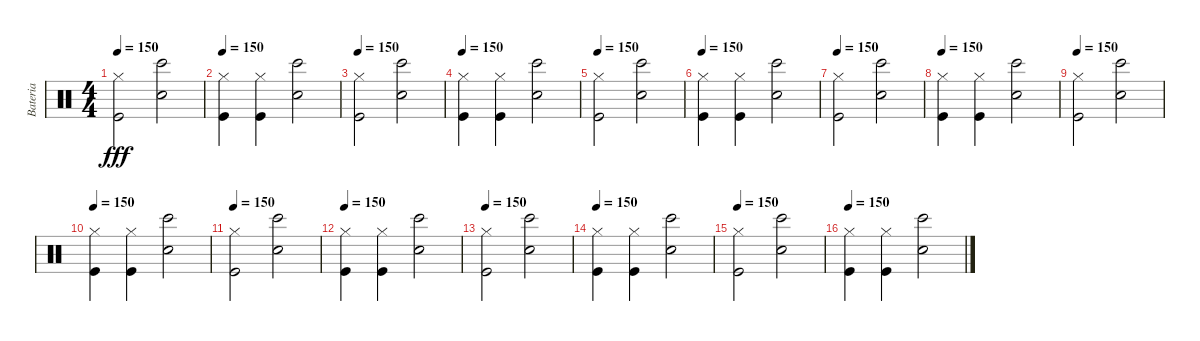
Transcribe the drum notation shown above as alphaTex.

\track ("Bateria" "Bateria") {instrument percussion}
\staff {score}
\articulation defaults
\ts (4 4)
\tempo 150
\clef neutral
\ks c
("Kick (hit)" "Hi-Hat (closed)").2{dy fff} ("Electric Snare (hit)" "Bongo High (hit)").2 |
\tempo 150
("Kick (hit)" "Hi-Hat (closed)").4 ("Kick (hit)" "Hi-Hat (closed)").4 ("Electric Snare (hit)" "Bongo High (hit)").2 |
\tempo 150
("Kick (hit)" "Hi-Hat (closed)").2 ("Electric Snare (hit)" "Bongo High (hit)").2 |
\tempo 150
("Kick (hit)" "Hi-Hat (closed)").4 ("Kick (hit)" "Hi-Hat (closed)").4 ("Electric Snare (hit)" "Bongo High (hit)").2 |
\tempo 150
("Kick (hit)" "Hi-Hat (closed)").2 ("Electric Snare (hit)" "Bongo High (hit)").2 |
\tempo 150
("Kick (hit)" "Hi-Hat (closed)").4 ("Kick (hit)" "Hi-Hat (closed)").4 ("Electric Snare (hit)" "Bongo High (hit)").2 |
\tempo 150
("Kick (hit)" "Hi-Hat (closed)").2 ("Electric Snare (hit)" "Bongo High (hit)").2 |
\tempo 150
("Kick (hit)" "Hi-Hat (closed)").4 ("Kick (hit)" "Hi-Hat (closed)").4 ("Electric Snare (hit)" "Bongo High (hit)").2 |
\tempo 150
("Kick (hit)" "Hi-Hat (closed)").2 ("Electric Snare (hit)" "Bongo High (hit)").2 |
\tempo 150
("Kick (hit)" "Hi-Hat (closed)").4 ("Kick (hit)" "Hi-Hat (closed)").4 ("Electric Snare (hit)" "Bongo High (hit)").2 |
\tempo 150
("Kick (hit)" "Hi-Hat (closed)").2 ("Electric Snare (hit)" "Bongo High (hit)").2 |
\tempo 150
("Kick (hit)" "Hi-Hat (closed)").4 ("Kick (hit)" "Hi-Hat (closed)").4 ("Electric Snare (hit)" "Bongo High (hit)").2 |
\tempo 150
("Kick (hit)" "Hi-Hat (closed)").2 ("Electric Snare (hit)" "Bongo High (hit)").2 |
\tempo 150
("Kick (hit)" "Hi-Hat (closed)").4 ("Kick (hit)" "Hi-Hat (closed)").4 ("Electric Snare (hit)" "Bongo High (hit)").2 |
\tempo 150
("Kick (hit)" "Hi-Hat (closed)").2 ("Electric Snare (hit)" "Bongo High (hit)").2 |
\tempo 150
("Kick (hit)" "Hi-Hat (closed)").4 ("Kick (hit)" "Hi-Hat (closed)").4 ("Electric Snare (hit)" "Bongo High (hit)").2
